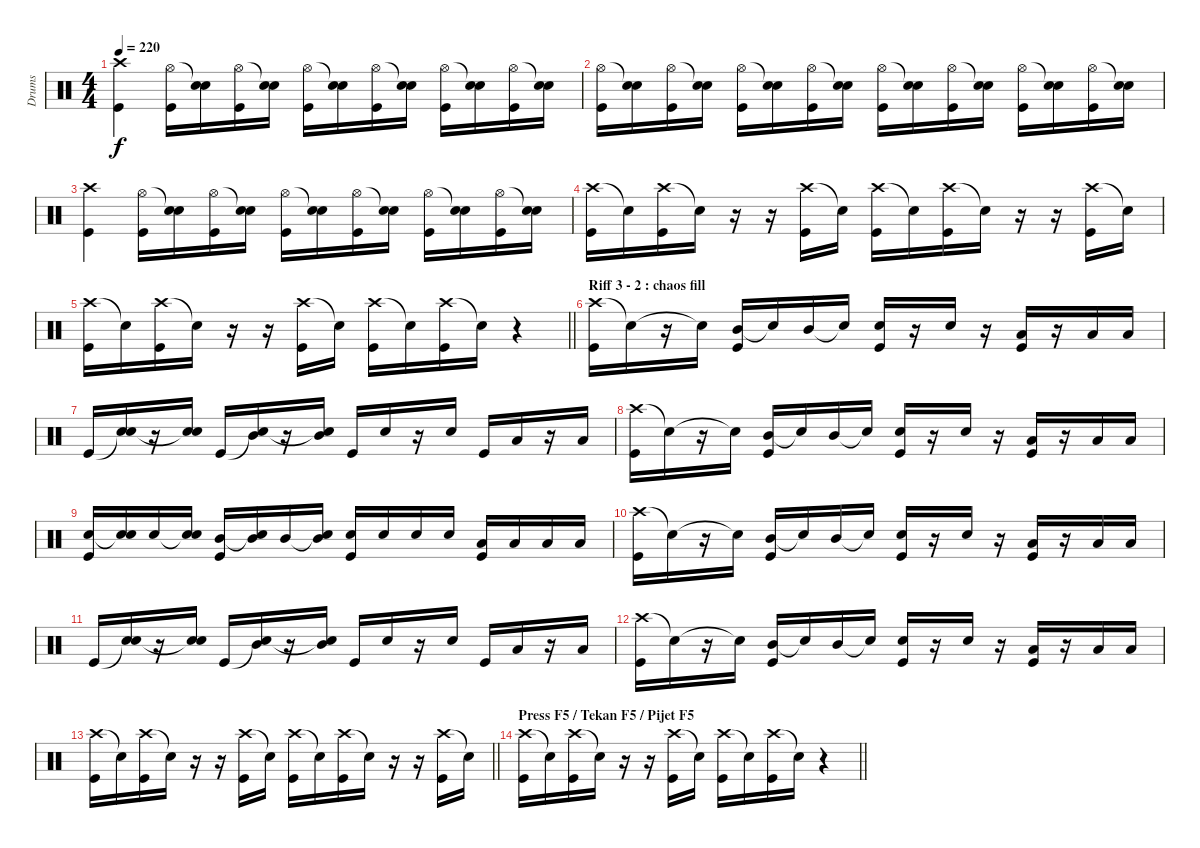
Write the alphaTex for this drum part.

\track ("Drums" "Drums") {instrument percussion}
\staff {score}
\articulation defaults
\ts (4 4)
\tempo 220
\clef neutral
\ks c
("Crash high (hit)" "Kick (hit)").4{dy f} ("Hi-Hat (open)" "Kick (hit)").16 ("Snare (hit)"{t} "Electric Snare (hit)").16 ("Hi-Hat (open)" "Kick (hit)").16 ("Snare (hit)"{t} "Electric Snare (hit)").16 ("Hi-Hat (open)" "Kick (hit)").16 ("Snare (hit)"{t} "Electric Snare (hit)").16 ("Hi-Hat (open)" "Kick (hit)").16 ("Snare (hit)"{t} "Electric Snare (hit)").16 ("Hi-Hat (open)" "Kick (hit)").16 ("Snare (hit)"{t} "Electric Snare (hit)").16 ("Hi-Hat (open)" "Kick (hit)").16 ("Snare (hit)"{t} "Electric Snare (hit)").16 |
("Hi-Hat (open)" "Kick (hit)").16 ("Snare (hit)"{t} "Electric Snare (hit)").16 ("Hi-Hat (open)" "Kick (hit)").16 ("Snare (hit)"{t} "Electric Snare (hit)").16 ("Hi-Hat (open)" "Kick (hit)").16 ("Snare (hit)"{t} "Electric Snare (hit)").16 ("Hi-Hat (open)" "Kick (hit)").16 ("Snare (hit)"{t} "Electric Snare (hit)").16 ("Hi-Hat (open)" "Kick (hit)").16 ("Snare (hit)"{t} "Electric Snare (hit)").16 ("Hi-Hat (open)" "Kick (hit)").16 ("Snare (hit)"{t} "Electric Snare (hit)").16 ("Hi-Hat (open)" "Kick (hit)").16 ("Snare (hit)"{t} "Electric Snare (hit)").16 ("Hi-Hat (open)" "Kick (hit)").16 ("Snare (hit)"{t} "Electric Snare (hit)").16 |
("Crash high (hit)" "Kick (hit)").4 ("Hi-Hat (open)" "Kick (hit)").16 ("Snare (hit)"{t} "Electric Snare (hit)").16 ("Hi-Hat (open)" "Kick (hit)").16 ("Snare (hit)"{t} "Electric Snare (hit)").16 ("Hi-Hat (open)" "Kick (hit)").16 ("Snare (hit)"{t} "Electric Snare (hit)").16 ("Hi-Hat (open)" "Kick (hit)").16 ("Snare (hit)"{t} "Electric Snare (hit)").16 ("Hi-Hat (open)" "Kick (hit)").16 ("Snare (hit)"{t} "Electric Snare (hit)").16 ("Hi-Hat (open)" "Kick (hit)").16 ("Snare (hit)"{t} "Electric Snare (hit)").16 |
("Crash high (hit)" "Kick (hit)").16 "Snare (hit)"{t}.16 ("Crash high (hit)" "Kick (hit)").16 "Snare (hit)"{t}.16 r.16 r.16 ("Crash high (hit)" "Kick (hit)").16 "Snare (hit)"{t}.16 ("Crash high (hit)" "Kick (hit)").16 "Snare (hit)"{t}.16 ("Crash high (hit)" "Kick (hit)").16 "Snare (hit)"{t}.16 r.16 r.16 ("Crash high (hit)" "Kick (hit)").16 "Snare (hit)"{t}.16 |
\barLineRight lightlight
("Crash high (hit)" "Kick (hit)").16 "Snare (hit)"{t}.16 ("Crash high (hit)" "Kick (hit)").16 "Snare (hit)"{t}.16 r.16 r.16 ("Crash high (hit)" "Kick (hit)").16 "Snare (hit)"{t}.16 ("Crash high (hit)" "Kick (hit)").16 "Snare (hit)"{t}.16 ("Crash high (hit)" "Kick (hit)").16 "Snare (hit)"{t}.16 r.4 |
\section ("" "Riff 3 - 2 : chaos fill")
("Crash high (hit)" "Kick (hit)").16 "Snare (hit)"{t}.16 r.16 "Snare (hit)"{t}.16 ("Mid Tom (hit)" "Kick (hit)").16 "Snare (hit)"{t}.16 "Mid Tom (hit)".16 "Snare (hit)"{t}.16 ("Electric Snare (hit)" "Kick (hit)").16 r.16 "Electric Snare (hit)".16 r.16 ("Low Tom (hit)" "Kick (hit)").16 r.16 "Low Tom (hit)".16 "Low Tom (hit)".16 |
"Kick (hit)".16 ("Snare (hit)"{t} "Electric Snare (hit)").16 r.16 ("Snare (hit)"{t} "Electric Snare (hit)").16 "Kick (hit)".16 ("Snare (hit)"{t} "Mid Tom (hit)").16 r.16 ("Snare (hit)"{t} "Mid Tom (hit)").16 "Kick (hit)".16 "Electric Snare (hit)".16 r.16 "Electric Snare (hit)".16 "Kick (hit)".16 "Low Tom (hit)".16 r.16 "Low Tom (hit)".16 |
("Crash high (hit)" "Kick (hit)").16 "Snare (hit)"{t}.16 r.16 "Snare (hit)"{t}.16 ("Mid Tom (hit)" "Kick (hit)").16 "Snare (hit)"{t}.16 "Mid Tom (hit)".16 "Snare (hit)"{t}.16 ("Electric Snare (hit)" "Kick (hit)").16 r.16 "Electric Snare (hit)".16 r.16 ("Low Tom (hit)" "Kick (hit)").16 r.16 "Low Tom (hit)".16 "Low Tom (hit)".16 |
("Electric Snare (hit)" "Kick (hit)").16 ("Snare (hit)"{t} "Electric Snare (hit)").16 "Electric Snare (hit)".16 ("Snare (hit)"{t} "Electric Snare (hit)").16 ("Mid Tom (hit)" "Kick (hit)").16 ("Snare (hit)"{t} "Mid Tom (hit)").16 "Mid Tom (hit)".16 ("Snare (hit)"{t} "Mid Tom (hit)").16 ("Electric Snare (hit)" "Kick (hit)").16 "Electric Snare (hit)".16 "Electric Snare (hit)".16 "Electric Snare (hit)".16 ("Low Tom (hit)" "Kick (hit)").16 "Low Tom (hit)".16 "Low Tom (hit)".16 "Low Tom (hit)".16 |
("Crash high (hit)" "Kick (hit)").16 "Snare (hit)"{t}.16 r.16 "Snare (hit)"{t}.16 ("Mid Tom (hit)" "Kick (hit)").16 "Snare (hit)"{t}.16 "Mid Tom (hit)".16 "Snare (hit)"{t}.16 ("Electric Snare (hit)" "Kick (hit)").16 r.16 "Electric Snare (hit)".16 r.16 ("Low Tom (hit)" "Kick (hit)").16 r.16 "Low Tom (hit)".16 "Low Tom (hit)".16 |
"Kick (hit)".16 ("Snare (hit)"{t} "Electric Snare (hit)").16 r.16 ("Snare (hit)"{t} "Electric Snare (hit)").16 "Kick (hit)".16 ("Snare (hit)"{t} "Mid Tom (hit)").16 r.16 ("Snare (hit)"{t} "Mid Tom (hit)").16 "Kick (hit)".16 "Electric Snare (hit)".16 r.16 "Electric Snare (hit)".16 "Kick (hit)".16 "Low Tom (hit)".16 r.16 "Low Tom (hit)".16 |
("Crash high (hit)" "Kick (hit)").16 "Snare (hit)"{t}.16 r.16 "Snare (hit)"{t}.16 ("Mid Tom (hit)" "Kick (hit)").16 "Snare (hit)"{t}.16 "Mid Tom (hit)".16 "Snare (hit)"{t}.16 ("Electric Snare (hit)" "Kick (hit)").16 r.16 "Electric Snare (hit)".16 r.16 ("Low Tom (hit)" "Kick (hit)").16 r.16 "Low Tom (hit)".16 "Low Tom (hit)".16 |
\barLineRight lightlight
("Crash high (hit)" "Kick (hit)").16 "Snare (hit)"{t}.16 ("Crash high (hit)" "Kick (hit)").16 "Snare (hit)"{t}.16 r.16 r.16 ("Crash high (hit)" "Kick (hit)").16 "Snare (hit)"{t}.16 ("Crash high (hit)" "Kick (hit)").16 "Snare (hit)"{t}.16 ("Crash high (hit)" "Kick (hit)").16 "Snare (hit)"{t}.16 r.16 r.16 ("Crash high (hit)" "Kick (hit)").16 "Snare (hit)"{t}.16 |
\section ("" "Press F5 / Tekan F5 / Pijet F5")
\barLineRight lightlight
("Crash high (hit)" "Kick (hit)").16 "Snare (hit)"{t}.16 ("Crash high (hit)" "Kick (hit)").16 "Snare (hit)"{t}.16 r.16 r.16 ("Crash high (hit)" "Kick (hit)").16 "Snare (hit)"{t}.16 ("Crash high (hit)" "Kick (hit)").16 "Snare (hit)"{t}.16 ("Crash high (hit)" "Kick (hit)").16 "Snare (hit)"{t}.16 r.4
